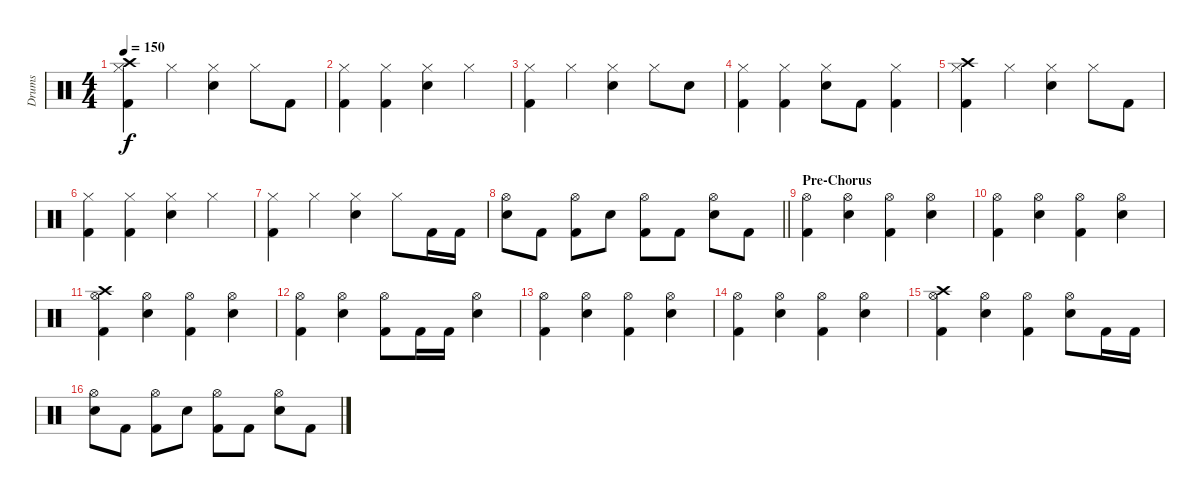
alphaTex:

\track ("Drums" "Drums") {instrument percussion}
\staff {score}
\articulation defaults
\ts (4 4)
\tempo 150
\clef neutral
\ks c
("Crash high (hit)" "Hi-Hat (closed)" "Kick (hit) 2").4{dy f} "Hi-Hat (closed)".4 ("Hi-Hat (closed)" "Snare (hit) 2").4 "Hi-Hat (closed)".8 "Kick (hit) 2".8 |
("Hi-Hat (closed)" "Kick (hit) 2").4 ("Hi-Hat (closed)" "Kick (hit) 2").4 ("Hi-Hat (closed)" "Snare (hit) 2").4 "Hi-Hat (closed)".4 |
("Hi-Hat (closed)" "Kick (hit) 2").4 "Hi-Hat (closed)".4 ("Hi-Hat (closed)" "Snare (hit) 2").4 "Hi-Hat (closed)".8 "Snare (hit) 2".8 |
("Hi-Hat (closed)" "Kick (hit) 2").4 ("Hi-Hat (closed)" "Kick (hit) 2").4 ("Hi-Hat (closed)" "Snare (hit) 2").8 "Kick (hit) 2".8 ("Hi-Hat (closed)" "Kick (hit) 2").4 |
("Crash high (hit)" "Hi-Hat (closed)" "Kick (hit) 2").4 "Hi-Hat (closed)".4 ("Hi-Hat (closed)" "Snare (hit) 2").4 "Hi-Hat (closed)".8 "Kick (hit) 2".8 |
("Hi-Hat (closed)" "Kick (hit) 2").4 ("Hi-Hat (closed)" "Kick (hit) 2").4 ("Hi-Hat (closed)" "Snare (hit) 2").4 "Hi-Hat (closed)".4 |
("Hi-Hat (closed)" "Kick (hit) 2").4 "Hi-Hat (closed)".4 ("Hi-Hat (closed)" "Snare (hit) 2").4 "Hi-Hat (closed)".8 "Kick (hit) 2".16 "Kick (hit) 2".16 |
\barLineRight lightlight
("Hi-Hat (open)" "Snare (hit) 2").8 "Kick (hit) 2".8 ("Hi-Hat (open)" "Kick (hit) 2").8 "Snare (hit) 2".8 ("Hi-Hat (open)" "Kick (hit) 2").8 "Kick (hit) 2".8 ("Hi-Hat (open)" "Snare (hit) 2").8 "Kick (hit) 2".8 |
\section ("" "Pre-Chorus")
("Hi-Hat (open)" "Kick (hit) 2").4 ("Hi-Hat (open)" "Snare (hit) 2").4 ("Hi-Hat (open)" "Kick (hit) 2").4 ("Hi-Hat (open)" "Snare (hit) 2").4 |
("Hi-Hat (open)" "Kick (hit) 2").4 ("Hi-Hat (open)" "Snare (hit) 2").4 ("Hi-Hat (open)" "Kick (hit) 2").4 ("Hi-Hat (open)" "Snare (hit) 2").4 |
("Crash high (hit)" "Hi-Hat (open)" "Kick (hit) 2").4 ("Hi-Hat (open)" "Snare (hit) 2").4 ("Hi-Hat (open)" "Kick (hit) 2").4 ("Hi-Hat (open)" "Snare (hit) 2").4 |
("Hi-Hat (open)" "Kick (hit) 2").4 ("Hi-Hat (open)" "Snare (hit) 2").4 ("Hi-Hat (open)" "Kick (hit) 2").8 "Kick (hit) 2".16 "Kick (hit) 2".16 ("Hi-Hat (open)" "Snare (hit) 2").4 |
("Hi-Hat (open)" "Kick (hit) 2").4 ("Hi-Hat (open)" "Snare (hit) 2").4 ("Hi-Hat (open)" "Kick (hit) 2").4 ("Hi-Hat (open)" "Snare (hit) 2").4 |
("Hi-Hat (open)" "Kick (hit) 2").4 ("Hi-Hat (open)" "Snare (hit) 2").4 ("Hi-Hat (open)" "Kick (hit) 2").4 ("Hi-Hat (open)" "Snare (hit) 2").4 |
("Crash high (hit)" "Hi-Hat (open)" "Kick (hit) 2").4 ("Hi-Hat (open)" "Snare (hit) 2").4 ("Hi-Hat (open)" "Kick (hit) 2").4 ("Hi-Hat (open)" "Snare (hit) 2").8 "Kick (hit) 2".16 "Kick (hit) 2".16 |
("Hi-Hat (open)" "Snare (hit) 2").8 "Kick (hit) 2".8 ("Hi-Hat (open)" "Kick (hit) 2").8 "Snare (hit) 2".8 ("Hi-Hat (open)" "Kick (hit) 2").8 "Kick (hit) 2".8 ("Hi-Hat (open)" "Snare (hit) 2").8 "Kick (hit) 2".8
